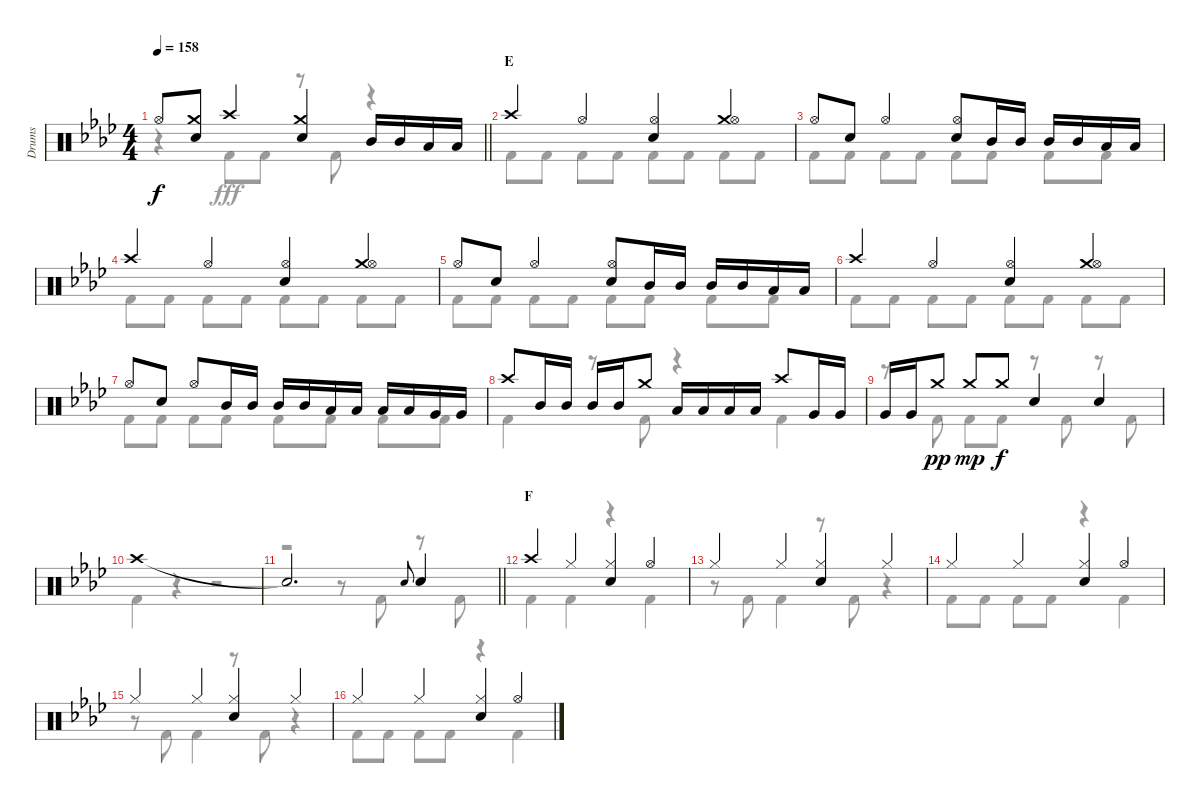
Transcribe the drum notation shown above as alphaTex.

\track ("Drums" "Drums") {instrument percussion}
\staff {score}
\articulation defaults
\voice
\ts (4 4)
\tempo 158
\clef neutral
\barLineRight lightlight
\ks ab "Hi-Hat (open)"{t}.8{dy f}
("Crash medium (hit)" "Snare (hit) 2").8 "Crash high (hit)".4 ("Crash medium (hit)" "Snare (hit) 2").4 "Mid Tom (hit)".16 "Mid Tom (hit)".16 "Low Tom (hit)".16 "Low Tom (hit)".16 |
\section ("" "E")
"Crash high (hit)".4 "Hi-Hat (open)".4 ("Hi-Hat (open)" "Snare (hit) 2").4 ("Crash medium (hit)" "Hi-Hat (open)").4 |
"Hi-Hat (open)".8 "Snare (hit) 2".8 "Hi-Hat (open)".4 ("Hi-Hat (open)" "Snare (hit) 2").8 "Mid Tom (hit)".16 "Mid Tom (hit)".16 "Mid Tom (hit)".16 "Mid Tom (hit)".16 "Low Tom (hit)".16 "Low Tom (hit)".16 |
"Crash high (hit)".4 "Hi-Hat (open)".4 ("Hi-Hat (open)" "Snare (hit) 2").4 ("Crash medium (hit)" "Hi-Hat (open)").4 |
"Hi-Hat (open)".8 "Snare (hit) 2".8 "Hi-Hat (open)".4 ("Hi-Hat (open)" "Snare (hit) 2").8 "Mid Tom (hit)".16 "Mid Tom (hit)".16 "Mid Tom (hit)".16 "Mid Tom (hit)".16 "Low Tom (hit)".16 "Low Tom (hit)".16 |
"Crash high (hit)".4 "Hi-Hat (open)".4 ("Hi-Hat (open)" "Snare (hit) 2").4 ("Crash medium (hit)" "Hi-Hat (open)").4 |
"Hi-Hat (open)".8 "Snare (hit) 2".8 "Hi-Hat (open)".8 "Mid Tom (hit)".16 "Mid Tom (hit)".16 "Mid Tom (hit)".16 "Mid Tom (hit)".16 "Low Tom (hit)".16 "Low Tom (hit)".16 "Low Tom (hit)".16 "Low Tom (hit)".16 "Very Low Tom (hit)".16 "Very Low Tom (hit)".16 |
"Crash high (hit)".8 "Mid Tom (hit)".16 "Mid Tom (hit)".16 "Mid Tom (hit)".16 "Mid Tom (hit)".16 "Crash medium (hit)".8 "Low Tom (hit)".16 "Low Tom (hit)".16 "Low Tom (hit)".16 "Low Tom (hit)".16 "Crash high (hit)".8 "Very Low Tom (hit)".16 "Very Low Tom (hit)".16 |
"Very Low Tom (hit)".16 "Very Low Tom (hit)".16 "Crash medium (hit)".8{dy pp} "Crash medium (hit)".8{dy mp} "Crash medium (hit)".8{dy f} "Snare (hit) 2".4 "Snare (hit) 2".4 |
"Crash high (hit)".1 |
\barLineRight lightlight "Snare (hit)"{t}.2{d} "Snare (hit) 2".8{gr onbeat} "Snare (hit) 2".4
|
\section ("" "F")
"Crash high (hit)".4 "Hi-Hat (closed)".4 ("Hi-Hat (closed)" "Snare (hit) 2").4 "Hi-Hat (open)".4 |
"Hi-Hat (closed)".4 "Hi-Hat (closed)".4 ("Hi-Hat (closed)" "Snare (hit) 2").4 "Hi-Hat (closed)".4 |
"Hi-Hat (closed)".4 "Hi-Hat (closed)".4 ("Hi-Hat (closed)" "Snare (hit) 2").4 "Hi-Hat (open)".4 |
"Hi-Hat (closed)".4 "Hi-Hat (closed)".4 ("Hi-Hat (closed)" "Snare (hit) 2").4 "Hi-Hat (closed)".4 |
"Hi-Hat (closed)".4 "Hi-Hat (closed)".4 ("Hi-Hat (closed)" "Snare (hit) 2").4 "Hi-Hat (open)".4
\voice
\clef neutral
\ottava regular
\simile none
\barLineRight lightlight
\ks ab
r.4{dy fff} "Kick (hit) 2".8 "Kick (hit) 2".8 r.8 "Kick (hit) 2".8 r.4 |
"Kick (hit) 2".8 "Kick (hit) 2".8 "Kick (hit) 2".8 "Kick (hit) 2".8 "Kick (hit) 2".8 "Kick (hit) 2".8 "Kick (hit) 2".8 "Kick (hit) 2".8 |
"Kick (hit) 2".8 "Kick (hit) 2".8 "Kick (hit) 2".8 "Kick (hit) 2".8 "Kick (hit) 2".8 "Kick (hit) 2".8 "Kick (hit) 2".8 "Kick (hit) 2".8 |
"Kick (hit) 2".8 "Kick (hit) 2".8 "Kick (hit) 2".8 "Kick (hit) 2".8 "Kick (hit) 2".8 "Kick (hit) 2".8 "Kick (hit) 2".8 "Kick (hit) 2".8 |
"Kick (hit) 2".8 "Kick (hit) 2".8 "Kick (hit) 2".8 "Kick (hit) 2".8 "Kick (hit) 2".8 "Kick (hit) 2".8 "Kick (hit) 2".8 "Kick (hit) 2".8 |
"Kick (hit) 2".8 "Kick (hit) 2".8 "Kick (hit) 2".8 "Kick (hit) 2".8 "Kick (hit) 2".8 "Kick (hit) 2".8 "Kick (hit) 2".8 "Kick (hit) 2".8 |
"Kick (hit) 2".8 "Kick (hit) 2".8 "Kick (hit) 2".8 "Kick (hit) 2".8 "Kick (hit) 2".8 "Kick (hit) 2".8 "Kick (hit) 2".8 "Kick (hit) 2".8 |
"Kick (hit) 2".4 r.8 "Kick (hit) 2".8 r.4 "Kick (hit) 2".4 |
r.8 "Kick (hit) 2".8 "Kick (hit) 2".8 "Kick (hit) 2".8 r.8 "Kick (hit) 2".8 r.8 "Kick (hit) 2".8 |
"Kick (hit) 2".4 r.4 r.2 |
\barLineRight lightlight
r.2 r.8 "Kick (hit) 2".8 r.8 "Kick (hit) 2".8 |
"Kick (hit) 2".4 "Kick (hit) 2".4 r.4 "Kick (hit) 2".4 |
r.8 "Kick (hit) 2".8 "Kick (hit) 2".4 r.8 "Kick (hit) 2".8 r.4 |
"Kick (hit) 2".8 "Kick (hit) 2".8 "Kick (hit) 2".8 "Kick (hit) 2".8 r.4 "Kick (hit) 2".4 |
r.8 "Kick (hit) 2".8 "Kick (hit) 2".4 r.8 "Kick (hit) 2".8 r.4 |
"Kick (hit) 2".8 "Kick (hit) 2".8 "Kick (hit) 2".8 "Kick (hit) 2".8 r.4 "Kick (hit) 2".4
